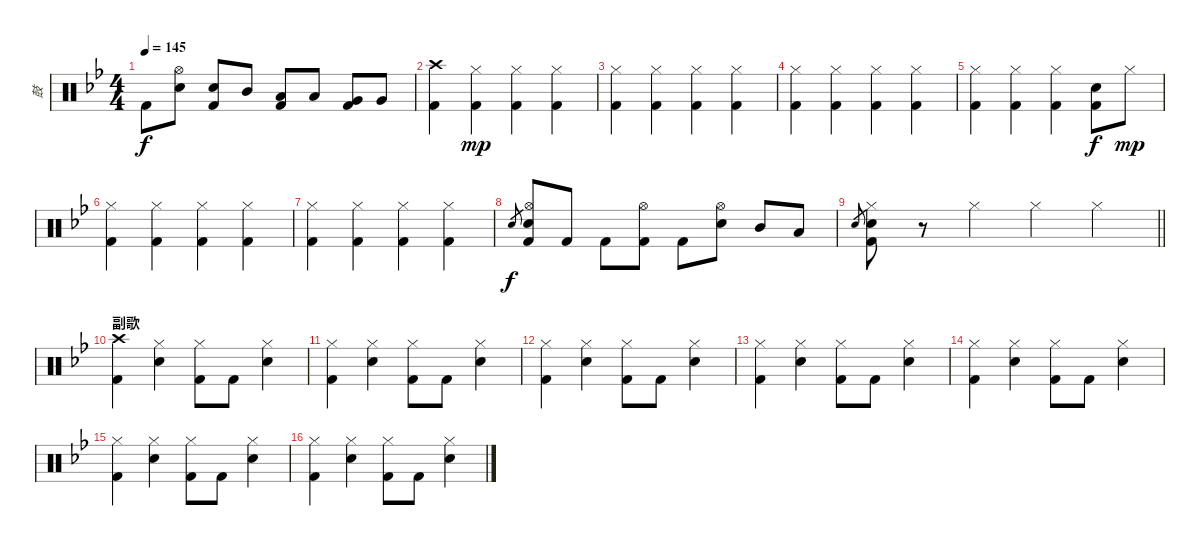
\track ("鼓" "鼓") {instrument percussion}
\staff {score}
\articulation defaults
\ts (4 4)
\tempo 145
\clef neutral
\ks bb "Kick (hit) 2".8{dy f}
("Hi-Hat (open)" "Snare (hit) 2").8 ("Snare (hit) 2" "Kick (hit) 2").8 "Mid Tom (hit)".8 ("Low Tom (hit)" "Kick (hit) 2").8 "Low Tom (hit)".8 ("Very Low Tom (hit)" "Kick (hit) 2").8 "Very Low Tom (hit)".8 |
("Crash high (hit)" "Kick (hit) 2").4 ("Hi-Hat (closed)" "Kick (hit) 2").4{dy mp} ("Hi-Hat (closed)" "Kick (hit) 2").4 ("Hi-Hat (closed)" "Kick (hit) 2").4 |
("Hi-Hat (closed)" "Kick (hit) 2").4 ("Hi-Hat (closed)" "Kick (hit) 2").4 ("Hi-Hat (closed)" "Kick (hit) 2").4 ("Hi-Hat (closed)" "Kick (hit) 2").4 |
("Hi-Hat (closed)" "Kick (hit) 2").4 ("Hi-Hat (closed)" "Kick (hit) 2").4 ("Hi-Hat (closed)" "Kick (hit) 2").4 ("Hi-Hat (closed)" "Kick (hit) 2").4 |
("Hi-Hat (closed)" "Kick (hit) 2").4 ("Hi-Hat (closed)" "Kick (hit) 2").4 ("Hi-Hat (closed)" "Kick (hit) 2").4 ("Snare (hit) 2" "Kick (hit) 2").8{dy f} "Hi-Hat (closed)".8{dy mp} |
("Hi-Hat (closed)" "Kick (hit) 2").4 ("Hi-Hat (closed)" "Kick (hit) 2").4 ("Hi-Hat (closed)" "Kick (hit) 2").4 ("Hi-Hat (closed)" "Kick (hit) 2").4 |
("Hi-Hat (closed)" "Kick (hit) 2").4 ("Hi-Hat (closed)" "Kick (hit) 2").4 ("Hi-Hat (closed)" "Kick (hit) 2").4 ("Hi-Hat (closed)" "Kick (hit) 2").4 |
"Snare (hit) 2".8{gr dy f} ("Hi-Hat (open)" "Snare (hit) 2" "Kick (hit) 2").8 "Kick (hit) 2".8 "Kick (hit) 2".8 ("Hi-Hat (open)" "Kick (hit) 2").8 "Kick (hit) 2".8 ("Hi-Hat (open)" "Snare (hit) 2").8 "Mid Tom (hit)".8 "Low Tom (hit)".8 |
\barLineRight lightlight "Snare (hit) 2".8{gr}
("Hi-Hat (closed)" "Snare (hit) 2" "Kick (hit) 2").8 r.8 "Hi-Hat (closed)".4 "Hi-Hat (closed)".4 "Hi-Hat (closed)".4 |
\section ("" "副歌")
("Crash high (hit)" "Kick (hit) 2").4 ("Hi-Hat (closed)" "Snare (hit) 2").4 ("Hi-Hat (closed)" "Kick (hit) 2").8 "Kick (hit) 2".8 ("Hi-Hat (closed)" "Snare (hit) 2").4 |
("Hi-Hat (closed)" "Kick (hit) 2").4 ("Hi-Hat (closed)" "Snare (hit) 2").4 ("Hi-Hat (closed)" "Kick (hit) 2").8 "Kick (hit) 2".8 ("Hi-Hat (closed)" "Snare (hit) 2").4 |
("Hi-Hat (closed)" "Kick (hit) 2").4 ("Hi-Hat (closed)" "Snare (hit) 2").4 ("Hi-Hat (closed)" "Kick (hit) 2").8 "Kick (hit) 2".8 ("Hi-Hat (closed)" "Snare (hit) 2").4 |
("Hi-Hat (closed)" "Kick (hit) 2").4 ("Hi-Hat (closed)" "Snare (hit) 2").4 ("Hi-Hat (closed)" "Kick (hit) 2").8 "Kick (hit) 2".8 ("Hi-Hat (closed)" "Snare (hit) 2").4 |
("Hi-Hat (closed)" "Kick (hit) 2").4 ("Hi-Hat (closed)" "Snare (hit) 2").4 ("Hi-Hat (closed)" "Kick (hit) 2").8 "Kick (hit) 2".8 ("Hi-Hat (closed)" "Snare (hit) 2").4 |
("Hi-Hat (closed)" "Kick (hit) 2").4 ("Hi-Hat (closed)" "Snare (hit) 2").4 ("Hi-Hat (closed)" "Kick (hit) 2").8 "Kick (hit) 2".8 ("Hi-Hat (closed)" "Snare (hit) 2").4 |
("Hi-Hat (closed)" "Kick (hit) 2").4 ("Hi-Hat (closed)" "Snare (hit) 2").4 ("Hi-Hat (closed)" "Kick (hit) 2").8 "Kick (hit) 2".8 ("Hi-Hat (closed)" "Snare (hit) 2").4
